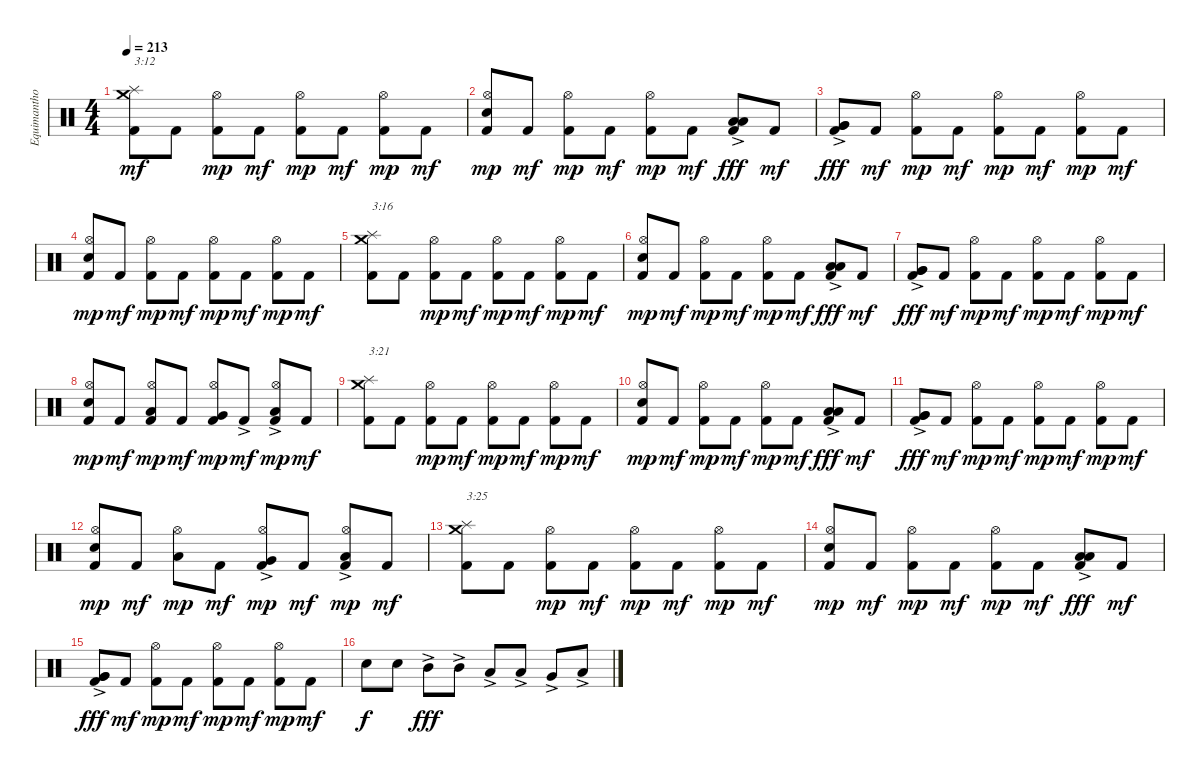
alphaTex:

\track ("Equimanthorn" "Equimantho") {instrument percussion}
\staff {score}
\articulation defaults
\ts (4 4)
\tempo 213
\clef neutral
\ks c
("Kick (hit) 2" "Splash (hit)" "Crash medium (hit)").8{txt "3:12" dy mf} "Kick (hit) 2".8 ("Kick (hit) 2" "Hi-Hat (open)").8{dy mp} "Kick (hit) 2".8{dy mf} ("Kick (hit) 2" "Hi-Hat (open)").8{dy mp} "Kick (hit) 2".8{dy mf} ("Kick (hit) 2" "Hi-Hat (open)").8{dy mp} "Kick (hit) 2".8{dy mf} |
("Kick (hit) 2" "Electric Snare (hit)" "Hi-Hat (open)").8{dy mp} "Kick (hit) 2".8{dy mf} ("Kick (hit) 2" "Hi-Hat (open)").8{dy mp} "Kick (hit) 2".8{dy mf} ("Kick (hit) 2" "Hi-Hat (open)").8{dy mp} "Kick (hit) 2".8{dy mf} ("Kick (hit) 2" "Low Floor Tom (hit)"{ac} "Low Floor Tom (hit)"{ac}).8{dy fff} "Kick (hit) 2".8{dy mf} |
("Kick (hit) 2" "Very Low Tom (hit)"{ac} "Very Low Tom (hit)"{ac}).8{dy fff} "Kick (hit) 2".8{dy mf} ("Kick (hit) 2" "Hi-Hat (open)").8{dy mp} "Kick (hit) 2".8{dy mf} ("Kick (hit) 2" "Hi-Hat (open)").8{dy mp} "Kick (hit) 2".8{dy mf} ("Kick (hit) 2" "Hi-Hat (open)").8{dy mp} "Kick (hit) 2".8{dy mf} |
("Kick (hit) 2" "Electric Snare (hit)" "Hi-Hat (open)").8{dy mp} "Kick (hit) 2".8{dy mf} ("Kick (hit) 2" "Hi-Hat (open)").8{dy mp} "Kick (hit) 2".8{dy mf} ("Kick (hit) 2" "Hi-Hat (open)").8{dy mp} "Kick (hit) 2".8{dy mf} ("Kick (hit) 2" "Hi-Hat (open)").8{dy mp} "Kick (hit) 2".8{dy mf} |
("Kick (hit) 2" "Splash (hit)" "Crash medium (hit)").8{txt "3:16"} "Kick (hit) 2".8 ("Kick (hit) 2" "Hi-Hat (open)").8{dy mp} "Kick (hit) 2".8{dy mf} ("Kick (hit) 2" "Hi-Hat (open)").8{dy mp} "Kick (hit) 2".8{dy mf} ("Kick (hit) 2" "Hi-Hat (open)").8{dy mp} "Kick (hit) 2".8{dy mf} |
("Kick (hit) 2" "Electric Snare (hit)" "Hi-Hat (open)").8{dy mp} "Kick (hit) 2".8{dy mf} ("Kick (hit) 2" "Hi-Hat (open)").8{dy mp} "Kick (hit) 2".8{dy mf} ("Kick (hit) 2" "Hi-Hat (open)").8{dy mp} "Kick (hit) 2".8{dy mf} ("Kick (hit) 2" "Low Floor Tom (hit)"{ac} "Low Floor Tom (hit)"{ac}).8{dy fff} "Kick (hit) 2".8{dy mf} |
("Kick (hit) 2" "Very Low Tom (hit)"{ac} "Very Low Tom (hit)"{ac}).8{dy fff} "Kick (hit) 2".8{dy mf} ("Kick (hit) 2" "Hi-Hat (open)").8{dy mp} "Kick (hit) 2".8{dy mf} ("Kick (hit) 2" "Hi-Hat (open)").8{dy mp} "Kick (hit) 2".8{dy mf} ("Kick (hit) 2" "Hi-Hat (open)").8{dy mp} "Kick (hit) 2".8{dy mf} |
("Kick (hit) 2" "Electric Snare (hit)" "Hi-Hat (open)").8{dy mp} "Kick (hit) 2".8{dy mf} ("Kick (hit) 2" "Low Tom (hit)" "Hi-Hat (open)").8{dy mp} "Kick (hit) 2".8{dy mf} ("Kick (hit) 2" "Very Low Tom (hit)" "Hi-Hat (open)").8{dy mp} "Kick (hit) 2"{ac}.8{dy mf} ("Kick (hit) 2" "Low Floor Tom (hit)"{ac} "Hi-Hat (open)").8{dy mp} "Kick (hit) 2".8{dy mf} |
("Kick (hit) 2" "Splash (hit)" "Crash medium (hit)").8{txt "3:21"} "Kick (hit) 2".8 ("Kick (hit) 2" "Hi-Hat (open)").8{dy mp} "Kick (hit) 2".8{dy mf} ("Kick (hit) 2" "Hi-Hat (open)").8{dy mp} "Kick (hit) 2".8{dy mf} ("Kick (hit) 2" "Hi-Hat (open)").8{dy mp} "Kick (hit) 2".8{dy mf} |
("Kick (hit) 2" "Electric Snare (hit)" "Hi-Hat (open)").8{dy mp} "Kick (hit) 2".8{dy mf} ("Kick (hit) 2" "Hi-Hat (open)").8{dy mp} "Kick (hit) 2".8{dy mf} ("Kick (hit) 2" "Hi-Hat (open)").8{dy mp} "Kick (hit) 2".8{dy mf} ("Kick (hit) 2" "Low Floor Tom (hit)"{ac} "Low Floor Tom (hit)"{ac}).8{dy fff} "Kick (hit) 2".8{dy mf} |
("Kick (hit) 2" "Very Low Tom (hit)"{ac} "Very Low Tom (hit)"{ac}).8{dy fff} "Kick (hit) 2".8{dy mf} ("Kick (hit) 2" "Hi-Hat (open)").8{dy mp} "Kick (hit) 2".8{dy mf} ("Kick (hit) 2" "Hi-Hat (open)").8{dy mp} "Kick (hit) 2".8{dy mf} ("Kick (hit) 2" "Hi-Hat (open)").8{dy mp} "Kick (hit) 2".8{dy mf} |
("Kick (hit) 2" "Electric Snare (hit)" "Hi-Hat (open)").8{dy mp} "Kick (hit) 2".8{dy mf} ("Low Tom (hit)" "Hi-Hat (open)").8{dy mp} "Kick (hit) 2".8{dy mf} ("Kick (hit) 2" "Very Low Tom (hit)"{ac} "Hi-Hat (open)").8{dy mp} "Kick (hit) 2".8{dy mf} ("Kick (hit) 2" "Low Floor Tom (hit)"{ac} "Hi-Hat (open)").8{dy mp} "Kick (hit) 2".8{dy mf} |
("Kick (hit) 2" "Splash (hit)" "Crash medium (hit)").8{txt "3:25"} "Kick (hit) 2".8 ("Kick (hit) 2" "Hi-Hat (open)").8{dy mp} "Kick (hit) 2".8{dy mf} ("Kick (hit) 2" "Hi-Hat (open)").8{dy mp} "Kick (hit) 2".8{dy mf} ("Kick (hit) 2" "Hi-Hat (open)").8{dy mp} "Kick (hit) 2".8{dy mf} |
("Kick (hit) 2" "Electric Snare (hit)" "Hi-Hat (open)").8{dy mp} "Kick (hit) 2".8{dy mf} ("Kick (hit) 2" "Hi-Hat (open)").8{dy mp} "Kick (hit) 2".8{dy mf} ("Kick (hit) 2" "Hi-Hat (open)").8{dy mp} "Kick (hit) 2".8{dy mf} ("Kick (hit) 2" "Low Floor Tom (hit)"{ac} "Low Floor Tom (hit)"{ac}).8{dy fff} "Kick (hit) 2".8{dy mf} |
("Kick (hit) 2" "Very Low Tom (hit)"{ac} "Very Low Tom (hit)"{ac}).8{dy fff} "Kick (hit) 2".8{dy mf} ("Kick (hit) 2" "Hi-Hat (open)").8{dy mp} "Kick (hit) 2".8{dy mf} ("Kick (hit) 2" "Hi-Hat (open)").8{dy mp} "Kick (hit) 2".8{dy mf} ("Kick (hit) 2" "Hi-Hat (open)").8{dy mp} "Kick (hit) 2".8{dy mf} |
"Electric Snare (hit)".8{dy f} "Electric Snare (hit)".8 "Mid Tom (hit)"{ac}.8{dy fff} "Mid Tom (hit)"{ac}.8 "Low Tom (hit)"{ac}.8 "Low Tom (hit)"{ac}.8 "Very Low Tom (hit)"{ac}.8 "Low Floor Tom (hit)"{ac}.8
